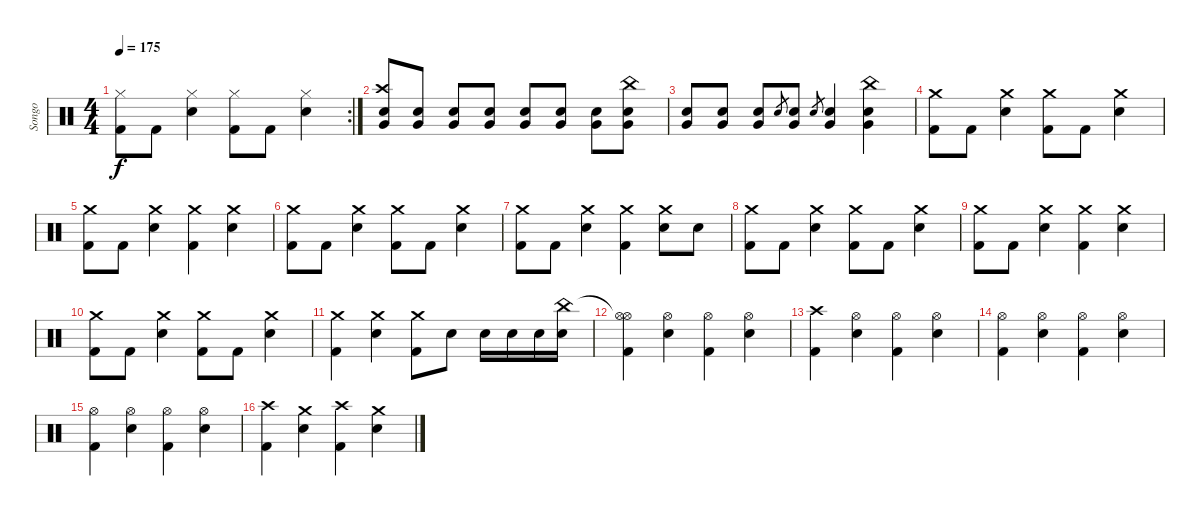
\track ("Songo" "Songo") {instrument percussion}
\staff {score}
\articulation defaults
\rc 2
\ts (4 4)
\tempo 175
\clef neutral
\ks c
("Hi-Hat (closed)" "Kick (hit) 2").8{dy f} "Kick (hit) 2".8 ("Hi-Hat (closed)" "Electric Snare (hit)").4 ("Hi-Hat (closed)" "Kick (hit) 2").8 "Kick (hit) 2".8 ("Hi-Hat (closed)" "Electric Snare (hit)").4 |
("Crash high (hit)" "Very Low Tom (hit)" "Electric Snare (hit)").8 ("Very Low Tom (hit)" "Electric Snare (hit)").8 ("Very Low Tom (hit)" "Electric Snare (hit)").8 ("Very Low Tom (hit)" "Electric Snare (hit)").8 ("Very Low Tom (hit)" "Electric Snare (hit)").8 ("Very Low Tom (hit)" "Electric Snare (hit)").8 ("Very Low Tom (hit)" "Electric Snare (hit)").8 ("China (hit)" "Very Low Tom (hit)" "Electric Snare (hit)").8 |
("Very Low Tom (hit)" "Electric Snare (hit)").8 ("Very Low Tom (hit)" "Electric Snare (hit)").8 ("Very Low Tom (hit)" "Electric Snare (hit)").8 "Electric Snare (hit)".8{gr} ("Very Low Tom (hit)" "Electric Snare (hit)").8 "Electric Snare (hit)".8{gr} ("Very Low Tom (hit)" "Electric Snare (hit)").4 ("China (hit)" "Very Low Tom (hit)" "Electric Snare (hit)").4 |
("Crash medium (hit)" "Kick (hit) 2").8 "Kick (hit) 2".8 ("Crash medium (hit)" "Electric Snare (hit)").4 ("Crash medium (hit)" "Kick (hit) 2").8 "Kick (hit) 2".8 ("Crash medium (hit)" "Electric Snare (hit)").4 |
("Crash medium (hit)" "Kick (hit) 2").8 "Kick (hit) 2".8 ("Crash medium (hit)" "Electric Snare (hit)").4 ("Crash medium (hit)" "Kick (hit) 2").4 ("Crash medium (hit)" "Electric Snare (hit)").4 |
("Crash medium (hit)" "Kick (hit) 2").8 "Kick (hit) 2".8 ("Crash medium (hit)" "Electric Snare (hit)").4 ("Crash medium (hit)" "Kick (hit) 2").8 "Kick (hit) 2".8 ("Crash medium (hit)" "Electric Snare (hit)").4 |
("Crash medium (hit)" "Kick (hit) 2").8 "Kick (hit) 2".8 ("Crash medium (hit)" "Electric Snare (hit)").4 ("Crash medium (hit)" "Kick (hit) 2").4 ("Crash medium (hit)" "Electric Snare (hit)").8 "Electric Snare (hit)".8 |
("Crash medium (hit)" "Kick (hit) 2").8 "Kick (hit) 2".8 ("Crash medium (hit)" "Electric Snare (hit)").4 ("Crash medium (hit)" "Kick (hit) 2").8 "Kick (hit) 2".8 ("Crash medium (hit)" "Electric Snare (hit)").4 |
("Crash medium (hit)" "Kick (hit) 2").8 "Kick (hit) 2".8 ("Crash medium (hit)" "Electric Snare (hit)").4 ("Crash medium (hit)" "Kick (hit) 2").4 ("Crash medium (hit)" "Electric Snare (hit)").4 |
("Crash medium (hit)" "Kick (hit) 2").8 "Kick (hit) 2".8 ("Crash medium (hit)" "Electric Snare (hit)").4 ("Crash medium (hit)" "Kick (hit) 2").8 "Kick (hit) 2".8 ("Crash medium (hit)" "Electric Snare (hit)").4 |
("Crash medium (hit)" "Kick (hit) 2").4 ("Crash medium (hit)" "Electric Snare (hit)").4 ("Crash medium (hit)" "Kick (hit) 2").8 "Electric Snare (hit)".8 "Electric Snare (hit)".16 "Electric Snare (hit)".16 "Electric Snare (hit)".16 ("China (hit)" "Electric Snare (hit)").16 |
("Hi-Hat (open)"{t} "Hi-Hat (open)" "Kick (hit) 2").4 ("Hi-Hat (open)" "Electric Snare (hit)").4 ("Hi-Hat (open)" "Kick (hit) 2").4 ("Hi-Hat (open)" "Electric Snare (hit)").4 |
("Crash high (hit)" "Kick (hit) 2").4 ("Hi-Hat (open)" "Electric Snare (hit)").4 ("Hi-Hat (open)" "Kick (hit) 2").4 ("Hi-Hat (open)" "Electric Snare (hit)").4 |
("Hi-Hat (open)" "Kick (hit) 2").4 ("Hi-Hat (open)" "Electric Snare (hit)").4 ("Hi-Hat (open)" "Kick (hit) 2").4 ("Hi-Hat (open)" "Electric Snare (hit)").4 |
("Hi-Hat (open)" "Kick (hit) 2").4 ("Hi-Hat (open)" "Electric Snare (hit)").4 ("Hi-Hat (open)" "Kick (hit) 2").4 ("Hi-Hat (open)" "Electric Snare (hit)").4 |
("Crash high (hit)" "Kick (hit) 2").4 ("Crash medium (hit)" "Electric Snare (hit)").4 ("Crash high (hit)" "Kick (hit) 2").4 ("Crash medium (hit)" "Electric Snare (hit)").4
